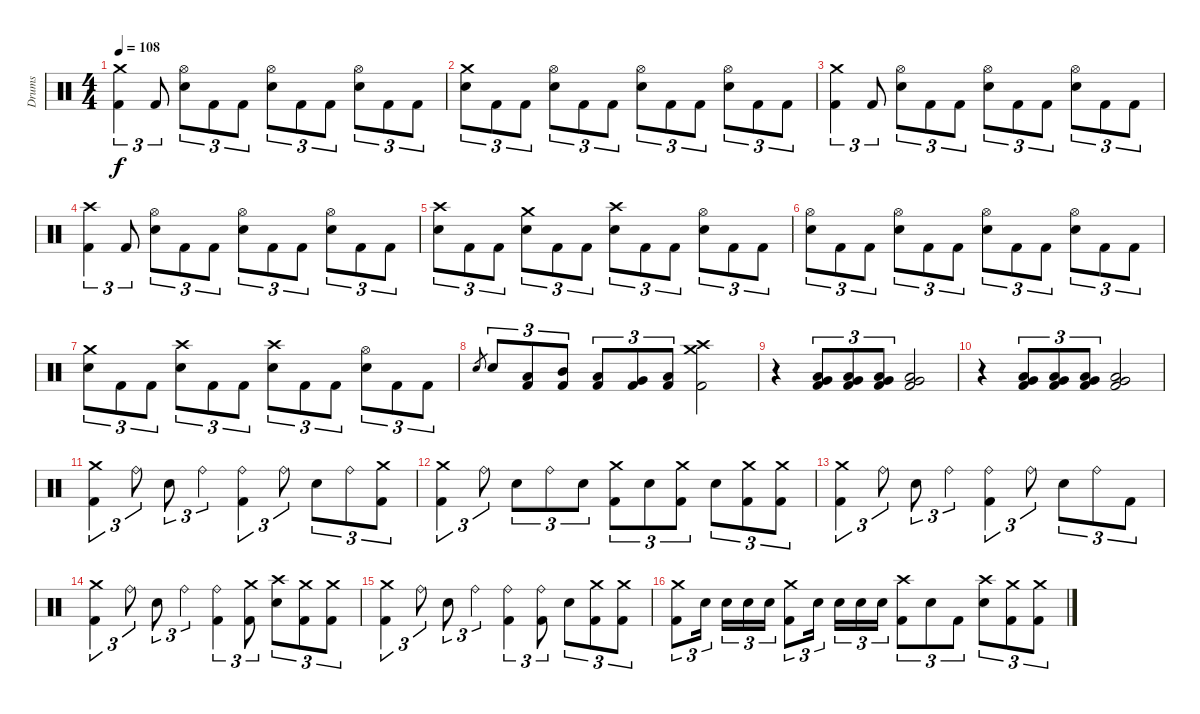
\track ("Drums" "Drums") {instrument percussion}
\staff {score}
\articulation defaults
\ts (4 4)
\tempo 108
\clef neutral
\ks c
("Crash medium (hit)" "Kick (hit) 2").4{tu (3 2) dy f} "Kick (hit) 2".8{tu (3 2)} ("Hi-Hat (open)" "Electric Snare (hit)").8{tu (3 2)} "Kick (hit) 2".8{tu (3 2)} "Kick (hit) 2".8{tu (3 2)} ("Hi-Hat (open)" "Electric Snare (hit)").8{tu (3 2)} "Kick (hit) 2".8{tu (3 2)} "Kick (hit) 2".8{tu (3 2)} ("Hi-Hat (open)" "Electric Snare (hit)").8{tu (3 2)} "Kick (hit) 2".8{tu (3 2)} "Kick (hit) 2".8{tu (3 2)} |
("Crash medium (hit)" "Electric Snare (hit)").8{tu (3 2)} "Kick (hit) 2".8{tu (3 2)} "Kick (hit) 2".8{tu (3 2)} ("Hi-Hat (open)" "Electric Snare (hit)").8{tu (3 2)} "Kick (hit) 2".8{tu (3 2)} "Kick (hit) 2".8{tu (3 2)} ("Hi-Hat (open)" "Electric Snare (hit)").8{tu (3 2)} "Kick (hit) 2".8{tu (3 2)} "Kick (hit) 2".8{tu (3 2)} ("Hi-Hat (open)" "Electric Snare (hit)").8{tu (3 2)} "Kick (hit) 2".8{tu (3 2)} "Kick (hit) 2".8{tu (3 2)} |
("Crash medium (hit)" "Kick (hit) 2").4{tu (3 2)} "Kick (hit) 2".8{tu (3 2)} ("Hi-Hat (open)" "Electric Snare (hit)").8{tu (3 2)} "Kick (hit) 2".8{tu (3 2)} "Kick (hit) 2".8{tu (3 2)} ("Hi-Hat (open)" "Electric Snare (hit)").8{tu (3 2)} "Kick (hit) 2".8{tu (3 2)} "Kick (hit) 2".8{tu (3 2)} ("Hi-Hat (open)" "Electric Snare (hit)").8{tu (3 2)} "Kick (hit) 2".8{tu (3 2)} "Kick (hit) 2".8{tu (3 2)} |
("Crash high (hit)" "Kick (hit) 2").4{tu (3 2)} "Kick (hit) 2".8{tu (3 2)} ("Hi-Hat (open)" "Electric Snare (hit)").8{tu (3 2)} "Kick (hit) 2".8{tu (3 2)} "Kick (hit) 2".8{tu (3 2)} ("Hi-Hat (open)" "Electric Snare (hit)").8{tu (3 2)} "Kick (hit) 2".8{tu (3 2)} "Kick (hit) 2".8{tu (3 2)} ("Hi-Hat (open)" "Electric Snare (hit)").8{tu (3 2)} "Kick (hit) 2".8{tu (3 2)} "Kick (hit) 2".8{tu (3 2)} |
("Crash high (hit)" "Electric Snare (hit)").8{tu (3 2)} "Kick (hit) 2".8{tu (3 2)} "Kick (hit) 2".8{tu (3 2)} ("Crash medium (hit)" "Electric Snare (hit)").8{tu (3 2)} "Kick (hit) 2".8{tu (3 2)} "Kick (hit) 2".8{tu (3 2)} ("Crash high (hit)" "Electric Snare (hit)").8{tu (3 2)} "Kick (hit) 2".8{tu (3 2)} "Kick (hit) 2".8{tu (3 2)} ("Hi-Hat (open)" "Electric Snare (hit)").8{tu (3 2)} "Kick (hit) 2".8{tu (3 2)} "Kick (hit) 2".8{tu (3 2)} |
("Hi-Hat (open)" "Electric Snare (hit)").8{tu (3 2)} "Kick (hit) 2".8{tu (3 2)} "Kick (hit) 2".8{tu (3 2)} ("Hi-Hat (open)" "Electric Snare (hit)").8{tu (3 2)} "Kick (hit) 2".8{tu (3 2)} "Kick (hit) 2".8{tu (3 2)} ("Hi-Hat (open)" "Electric Snare (hit)").8{tu (3 2)} "Kick (hit) 2".8{tu (3 2)} "Kick (hit) 2".8{tu (3 2)} ("Hi-Hat (open)" "Electric Snare (hit)").8{tu (3 2)} "Kick (hit) 2".8{tu (3 2)} "Kick (hit) 2".8{tu (3 2)} |
("Crash medium (hit)" "Electric Snare (hit)").8{tu (3 2)} "Kick (hit) 2".8{tu (3 2)} "Kick (hit) 2".8{tu (3 2)} ("Crash high (hit)" "Electric Snare (hit)").8{tu (3 2)} "Kick (hit) 2".8{tu (3 2)} "Kick (hit) 2".8{tu (3 2)} ("Crash high (hit)" "Electric Snare (hit)").8{tu (3 2)} "Kick (hit) 2".8{tu (3 2)} "Kick (hit) 2".8{tu (3 2)} ("Hi-Hat (open)" "Electric Snare (hit)").8{tu (3 2)} "Kick (hit) 2".8{tu (3 2)} "Kick (hit) 2".8{tu (3 2)} |
"Electric Snare (hit)".8{gr} "Electric Snare (hit)".8{tu (3 2)} ("Low Tom (hit)" "Kick (hit) 2").8{tu (3 2)} ("Mid Tom (hit)" "Kick (hit) 2").8{tu (3 2)} ("Low Tom (hit)" "Kick (hit) 2").8{tu (3 2)} ("Very Low Tom (hit)" "Kick (hit) 2").8{tu (3 2)} ("Low Floor Tom (hit)" "Kick (hit) 2").8{tu (3 2)} ("Crash medium (hit)" "Crash high (hit)" "Kick (hit) 2").2 |
r.4 ("Very Low Tom (hit)" "Low Tom (hit)" "Kick (hit) 2").8{tu (3 2)} ("Very Low Tom (hit)" "Low Tom (hit)" "Kick (hit) 2").8{tu (3 2)} ("Very Low Tom (hit)" "Low Tom (hit)" "Kick (hit) 2").8{tu (3 2)} ("Very Low Tom (hit)" "Low Tom (hit)" "Kick (hit) 2").2 |
r.4 ("Very Low Tom (hit)" "Low Tom (hit)" "Kick (hit) 2").8{tu (3 2)} ("Very Low Tom (hit)" "Low Tom (hit)" "Kick (hit) 2").8{tu (3 2)} ("Very Low Tom (hit)" "Low Tom (hit)" "Kick (hit) 2").8{tu (3 2)} ("Very Low Tom (hit)" "Low Tom (hit)" "Kick (hit) 2").2 |
("Crash medium (hit)" "Kick (hit) 2").4{tu (3 2)} "Ride (bell)".8{tu (3 2)} "Electric Snare (hit)".8{tu (3 2)} "Ride (bell)".4{tu (3 2)} ("Ride (bell)" "Kick (hit) 2").4{tu (3 2)} "Ride (bell)".8{tu (3 2)} "Electric Snare (hit)".8{tu (3 2)} "Ride (bell)".8{tu (3 2)} ("Crash medium (hit)" "Kick (hit) 2").8{tu (3 2)} |
("Crash medium (hit)" "Kick (hit) 2").4{tu (3 2)} "Ride (bell)".8{tu (3 2)} "Electric Snare (hit)".8{tu (3 2)} "Ride (bell)".8{tu (3 2)} "Electric Snare (hit)".8{tu (3 2)} ("Crash medium (hit)" "Kick (hit) 2").8{tu (3 2)} "Electric Snare (hit)".8{tu (3 2)} ("Crash medium (hit)" "Kick (hit) 2").8{tu (3 2)} "Electric Snare (hit)".8{tu (3 2)} ("Crash medium (hit)" "Kick (hit) 2").8{tu (3 2)} ("Crash medium (hit)" "Kick (hit) 2").8{tu (3 2)} |
("Crash medium (hit)" "Kick (hit) 2").4{tu (3 2)} "Ride (bell)".8{tu (3 2)} "Electric Snare (hit)".8{tu (3 2)} "Ride (bell)".4{tu (3 2)} ("Ride (bell)" "Kick (hit) 2").4{tu (3 2)} "Ride (bell)".8{tu (3 2)} "Electric Snare (hit)".8{tu (3 2)} "Ride (bell)".8{tu (3 2)} "Kick (hit) 2".8{tu (3 2)} |
("Crash medium (hit)" "Kick (hit) 2").4{tu (3 2)} "Ride (bell)".8{tu (3 2)} "Electric Snare (hit)".8{tu (3 2)} "Ride (bell)".4{tu (3 2)} ("Ride (bell)" "Kick (hit) 2").4{tu (3 2)} ("Crash medium (hit)" "Kick (hit) 2").8{tu (3 2)} ("Crash high (hit)" "Electric Snare (hit)").8{tu (3 2)} ("Crash medium (hit)" "Kick (hit) 2").8{tu (3 2)} ("Crash medium (hit)" "Kick (hit) 2").8{tu (3 2)} |
("Crash medium (hit)" "Kick (hit) 2").4{tu (3 2)} "Ride (bell)".8{tu (3 2)} "Electric Snare (hit)".8{tu (3 2)} "Ride (bell)".4{tu (3 2)} ("Ride (bell)" "Kick (hit) 2").4{tu (3 2)} ("Ride (bell)" "Kick (hit) 2").8{tu (3 2)} "Electric Snare (hit)".8{tu (3 2)} ("Crash medium (hit)" "Kick (hit) 2").8{tu (3 2)} ("Crash medium (hit)" "Kick (hit) 2").8{tu (3 2)} |
("Crash medium (hit)" "Kick (hit) 2").8{tu (3 2)} "Electric Snare (hit)".16{tu (3 2) beam splitsecondary} "Electric Snare (hit)".16{tu (3 2)} "Electric Snare (hit)".16{tu (3 2)} "Electric Snare (hit)".16{tu (3 2)} ("Crash medium (hit)" "Kick (hit) 2").8{tu (3 2)} "Electric Snare (hit)".16{tu (3 2) beam splitsecondary} "Electric Snare (hit)".16{tu (3 2)} "Electric Snare (hit)".16{tu (3 2)} "Electric Snare (hit)".16{tu (3 2)} ("Crash high (hit)" "Kick (hit) 2").8{tu (3 2)} "Electric Snare (hit)".8{tu (3 2)} "Kick (hit) 2".8{tu (3 2)} ("Crash high (hit)" "Electric Snare (hit)").8{tu (3 2)} ("Crash medium (hit)" "Kick (hit) 2").8{tu (3 2)} ("Crash medium (hit)" "Kick (hit) 2").8{tu (3 2)}
